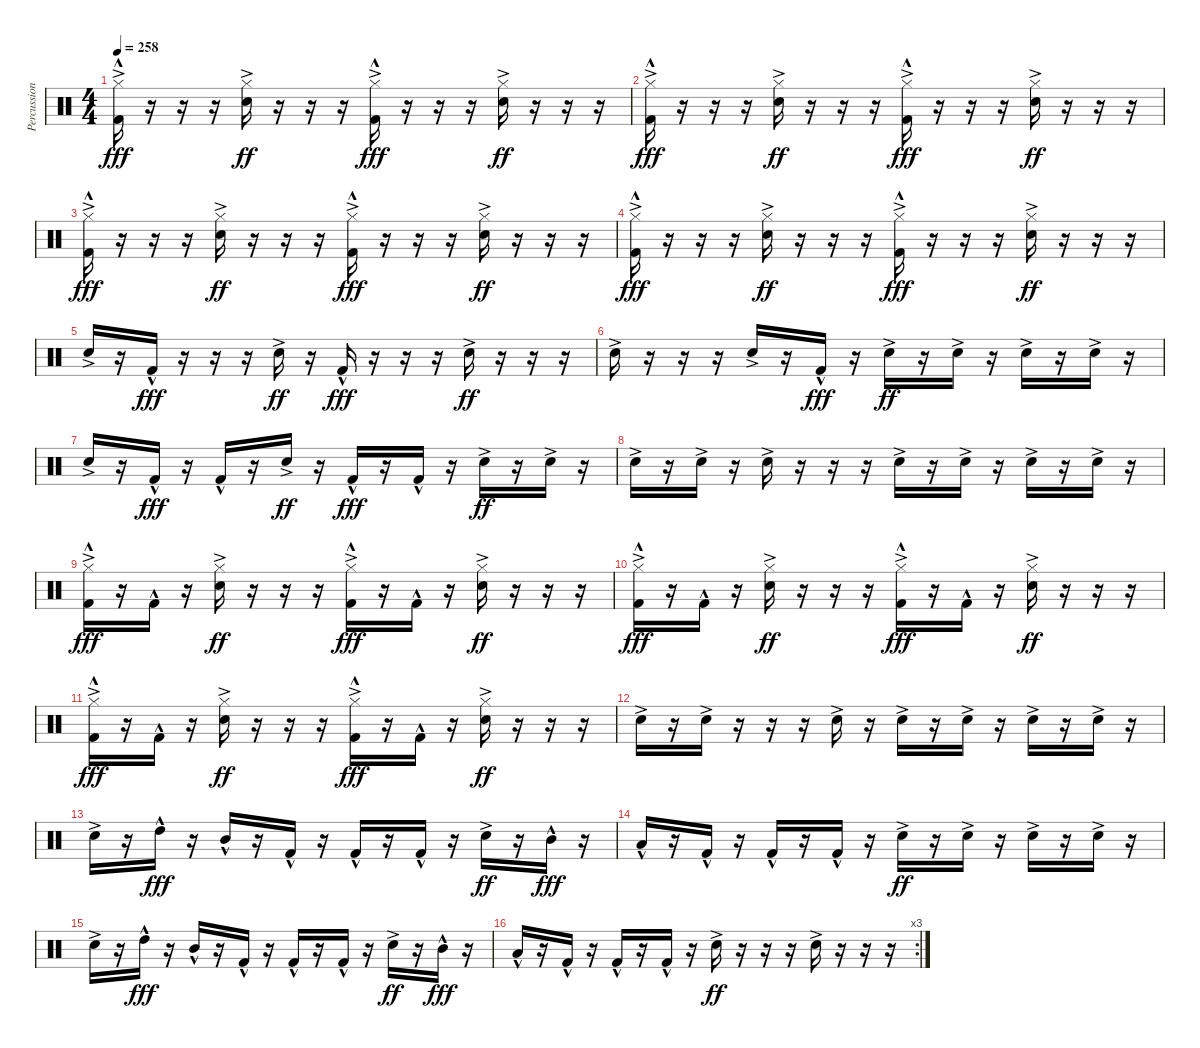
\track ("Percussion" "Percussion") {instrument percussion}
\staff {score}
\articulation defaults
\ts (4 4)
\tempo 258
\clef neutral
\ks c
("Hi-Hat (closed)"{ac} "Kick (hit) 2"{hac}).16{dy fff} r.16 r.16 r.16 ("Hi-Hat (closed)"{ac} "Snare (hit) 2"{ac}).16{dy ff} r.16 r.16 r.16 ("Hi-Hat (closed)"{ac} "Kick (hit) 2"{hac}).16{dy fff} r.16 r.16 r.16 ("Hi-Hat (closed)"{ac} "Snare (hit) 2"{ac}).16{dy ff} r.16 r.16 r.16 |
("Hi-Hat (closed)"{ac} "Kick (hit) 2"{hac}).16{dy fff} r.16 r.16 r.16 ("Hi-Hat (closed)"{ac} "Snare (hit) 2"{ac}).16{dy ff} r.16 r.16 r.16 ("Hi-Hat (closed)"{ac} "Kick (hit) 2"{hac}).16{dy fff} r.16 r.16 r.16 ("Hi-Hat (closed)"{ac} "Snare (hit) 2"{ac}).16{dy ff} r.16 r.16 r.16 |
("Hi-Hat (closed)"{ac} "Kick (hit) 2"{hac}).16{dy fff} r.16 r.16 r.16 ("Hi-Hat (closed)"{ac} "Snare (hit) 2"{ac}).16{dy ff} r.16 r.16 r.16 ("Hi-Hat (closed)"{ac} "Kick (hit) 2"{hac}).16{dy fff} r.16 r.16 r.16 ("Hi-Hat (closed)"{ac} "Snare (hit) 2"{ac}).16{dy ff} r.16 r.16 r.16 |
("Hi-Hat (closed)"{ac} "Kick (hit) 2"{hac}).16{dy fff} r.16 r.16 r.16 ("Hi-Hat (closed)"{ac} "Snare (hit) 2"{ac}).16{dy ff} r.16 r.16 r.16 ("Hi-Hat (closed)"{ac} "Kick (hit) 2"{hac}).16{dy fff} r.16 r.16 r.16 ("Hi-Hat (closed)"{ac} "Snare (hit) 2"{ac}).16{dy ff} r.16 r.16 r.16 |
"Snare (hit) 2"{ac}.16 r.16 "Kick (hit) 2"{hac}.16{dy fff} r.16 r.16 r.16 "Snare (hit) 2"{ac}.16{dy ff} r.16 "Kick (hit) 2"{hac}.16{dy fff} r.16 r.16 r.16 "Snare (hit) 2"{ac}.16{dy ff} r.16 r.16 r.16 |
"Snare (hit) 2"{ac}.16 r.16 r.16 r.16 "Snare (hit) 2"{ac}.16 r.16 "Kick (hit) 2"{hac}.16{dy fff} r.16 "Snare (hit) 2"{ac}.16{dy ff} r.16 "Snare (hit) 2"{ac}.16 r.16 "Snare (hit) 2"{ac}.16 r.16 "Snare (hit) 2"{ac}.16 r.16 |
"Snare (hit) 2"{ac}.16 r.16 "Kick (hit) 2"{hac}.16{dy fff} r.16 "Kick (hit) 2"{hac}.16 r.16 "Snare (hit) 2"{ac}.16{dy ff} r.16 "Kick (hit) 2"{hac}.16{dy fff} r.16 "Kick (hit) 2"{hac}.16 r.16 "Snare (hit) 2"{ac}.16{dy ff} r.16 "Snare (hit) 2"{ac}.16 r.16 |
"Snare (hit) 2"{ac}.16 r.16 "Snare (hit) 2"{ac}.16 r.16 "Snare (hit) 2"{ac}.16 r.16 r.16 r.16 "Snare (hit) 2"{ac}.16 r.16 "Snare (hit) 2"{ac}.16 r.16 "Snare (hit) 2"{ac}.16 r.16 "Snare (hit) 2"{ac}.16 r.16 |
("Hi-Hat (closed)"{ac} "Kick (hit) 2"{hac}).16{dy fff} r.16 "Kick (hit) 2"{hac}.16 r.16 ("Hi-Hat (closed)"{ac} "Snare (hit) 2"{ac}).16{dy ff} r.16 r.16 r.16 ("Hi-Hat (closed)"{ac} "Kick (hit) 2"{hac}).16{dy fff} r.16 "Kick (hit) 2"{hac}.16 r.16 ("Hi-Hat (closed)"{ac} "Snare (hit) 2"{ac}).16{dy ff} r.16 r.16 r.16 |
("Hi-Hat (closed)"{ac} "Kick (hit) 2"{hac}).16{dy fff} r.16 "Kick (hit) 2"{hac}.16 r.16 ("Hi-Hat (closed)"{ac} "Snare (hit) 2"{ac}).16{dy ff} r.16 r.16 r.16 ("Hi-Hat (closed)"{ac} "Kick (hit) 2"{hac}).16{dy fff} r.16 "Kick (hit) 2"{hac}.16 r.16 ("Hi-Hat (closed)"{ac} "Snare (hit) 2"{ac}).16{dy ff} r.16 r.16 r.16 |
("Hi-Hat (closed)"{ac} "Kick (hit) 2"{hac}).16{dy fff} r.16 "Kick (hit) 2"{hac}.16 r.16 ("Hi-Hat (closed)"{ac} "Snare (hit) 2"{ac}).16{dy ff} r.16 r.16 r.16 ("Hi-Hat (closed)"{ac} "Kick (hit) 2"{hac}).16{dy fff} r.16 "Kick (hit) 2"{hac}.16 r.16 ("Hi-Hat (closed)"{ac} "Snare (hit) 2"{ac}).16{dy ff} r.16 r.16 r.16 |
"Snare (hit) 2"{ac}.16 r.16 "Snare (hit) 2"{ac}.16 r.16 r.16 r.16 "Snare (hit) 2"{ac}.16 r.16 "Snare (hit) 2"{ac}.16 r.16 "Snare (hit) 2"{ac}.16 r.16 "Snare (hit) 2"{ac}.16 r.16 "Snare (hit) 2"{ac}.16 r.16 |
"Snare (hit) 2"{ac}.16 r.16 "High Tom (hit)"{hac}.16{dy fff} r.16 "Mid Tom (hit)"{hac}.16 r.16 "Kick (hit) 2"{hac}.16 r.16 "Kick (hit) 2"{hac}.16 r.16 "Kick (hit) 2"{hac}.16 r.16 "Snare (hit) 2"{ac}.16{dy ff} r.16 "Mid Tom (hit)"{hac}.16{dy fff} r.16 |
"Low Tom (hit)"{hac}.16 r.16 "Kick (hit) 2"{hac}.16 r.16 "Kick (hit) 2"{hac}.16 r.16 "Kick (hit) 2"{hac}.16 r.16 "Snare (hit) 2"{ac}.16{dy ff} r.16 "Snare (hit) 2"{ac}.16 r.16 "Snare (hit) 2"{ac}.16 r.16 "Snare (hit) 2"{ac}.16 r.16 |
"Snare (hit) 2"{ac}.16 r.16 "High Tom (hit)"{hac}.16{dy fff} r.16 "Mid Tom (hit)"{hac}.16 r.16 "Kick (hit) 2"{hac}.16 r.16 "Kick (hit) 2"{hac}.16 r.16 "Kick (hit) 2"{hac}.16 r.16 "Snare (hit) 2"{ac}.16{dy ff} r.16 "Mid Tom (hit)"{hac}.16{dy fff} r.16 |
\rc 3 "Low Tom (hit)"{hac}.16
r.16 "Kick (hit) 2"{hac}.16 r.16 "Kick (hit) 2"{hac}.16 r.16 "Kick (hit) 2"{hac}.16 r.16 "Snare (hit) 2"{ac}.16{dy ff} r.16 r.16 r.16 "Snare (hit) 2"{ac}.16 r.16 r.16 r.16
